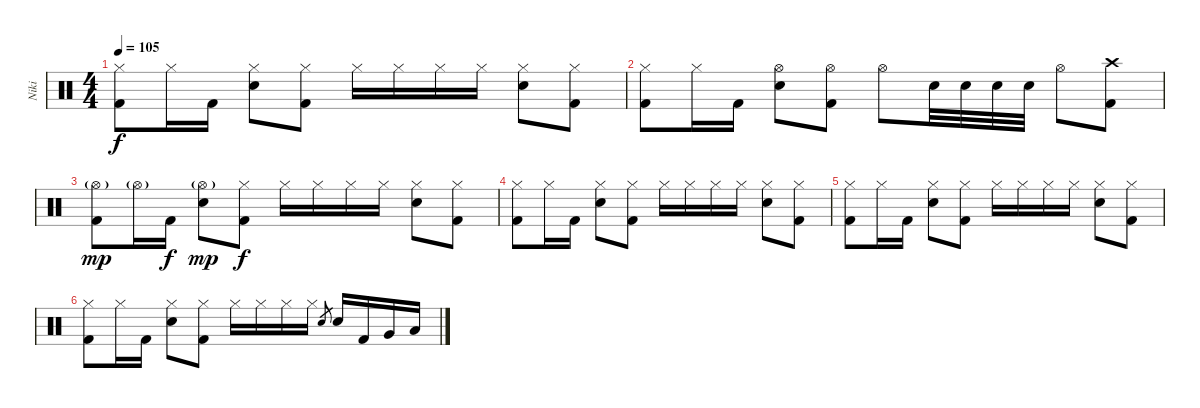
\track ("Niki" "Niki") {instrument percussion}
\staff {score}
\articulation defaults
\ts (4 4)
\tempo 105
\clef neutral
\ks c
("Hi-Hat (closed)" "Kick (hit) 2").8{dy f} "Hi-Hat (closed)".16 "Kick (hit) 2".16 ("Hi-Hat (closed)" "Snare (hit) 2").8 ("Hi-Hat (closed)" "Kick (hit) 2").8 "Hi-Hat (closed)".16 "Hi-Hat (closed)".16 "Hi-Hat (closed)".16 "Hi-Hat (closed)".16 ("Hi-Hat (closed)" "Snare (hit) 2").8 ("Hi-Hat (closed)" "Kick (hit) 2").8 |
("Hi-Hat (closed)" "Kick (hit) 2").8 "Hi-Hat (closed)".16 "Kick (hit) 2".16 ("Hi-Hat (open)" "Snare (hit) 2").8 ("Hi-Hat (open)" "Kick (hit) 2").8 "Hi-Hat (open)".8 "Snare (hit) 2".32 "Snare (hit) 2".32 "Snare (hit) 2".32 "Snare (hit) 2".32 "Hi-Hat (open)".8 ("Crash high (hit)" "Kick (hit) 2").8 |
("Hi-Hat (open)"{g} "Kick (hit) 2").8{dy mp volume 0} "Hi-Hat (open)"{g}.16 "Kick (hit) 2".16{dy f} ("Hi-Hat (open)"{g} "Snare (hit) 2").8{dy mp} ("Hi-Hat (closed)" "Kick (hit) 2").8{dy f} "Hi-Hat (closed)".16 "Hi-Hat (closed)".16 "Hi-Hat (closed)".16 "Hi-Hat (closed)".16 ("Hi-Hat (closed)" "Snare (hit) 2").8 ("Hi-Hat (closed)" "Kick (hit) 2").8 |
("Hi-Hat (closed)" "Kick (hit) 2").8 "Hi-Hat (closed)".16 "Kick (hit) 2".16 ("Hi-Hat (closed)" "Snare (hit) 2").8 ("Hi-Hat (closed)" "Kick (hit) 2").8 "Hi-Hat (closed)".16 "Hi-Hat (closed)".16 "Hi-Hat (closed)".16 "Hi-Hat (closed)".16 ("Hi-Hat (closed)" "Snare (hit) 2").8 ("Hi-Hat (closed)" "Kick (hit) 2").8 |
("Hi-Hat (closed)" "Kick (hit) 2").8 "Hi-Hat (closed)".16 "Kick (hit) 2".16 ("Hi-Hat (closed)" "Snare (hit) 2").8 ("Hi-Hat (closed)" "Kick (hit) 2").8 "Hi-Hat (closed)".16 "Hi-Hat (closed)".16 "Hi-Hat (closed)".16 "Hi-Hat (closed)".16 ("Hi-Hat (closed)" "Snare (hit) 2").8 ("Hi-Hat (closed)" "Kick (hit) 2").8 |
("Hi-Hat (closed)" "Kick (hit) 2").8 "Hi-Hat (closed)".16 "Kick (hit) 2".16 ("Hi-Hat (closed)" "Snare (hit) 2").8 ("Hi-Hat (closed)" "Kick (hit) 2").8 "Hi-Hat (closed)".16 "Hi-Hat (closed)".16 "Hi-Hat (closed)".16 "Hi-Hat (closed)".16 "Snare (hit) 2".8{gr} "Snare (hit) 2".16 "Kick (hit) 2".16 "Very Low Tom (hit)".16 "Low Tom (hit)".16
